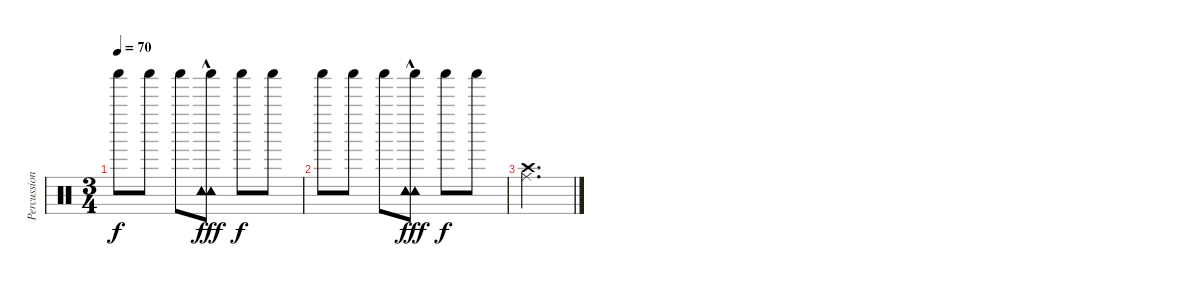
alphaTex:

\track ("Percussion" "Percussion") {instrument percussion}
\staff {score}
\articulation defaults
\ts (3 4)
\tempo 70
\clef neutral
\ks c "Shaker (hit)".8{dy f} "Shaker (hit)".8 "Shaker (hit)".8
("Shaker (hit)" "Tambourine (hit)"{hac} "Tambourine (hit)"{hac} "Tambourine (hit)"{hac}).8{bd 60 dy fff} "Shaker (hit)".8{dy f} "Shaker (hit)".8 |
"Shaker (hit)".8 "Shaker (hit)".8 "Shaker (hit)".8 ("Shaker (hit)" "Tambourine (hit)"{hac} "Tambourine (hit)"{hac} "Tambourine (hit)"{hac}).8{bd 60 dy fff} "Shaker (hit)".8{dy f} "Shaker (hit)".8 |
("Crash high (hit)" "Ride (middle)").2{d}
